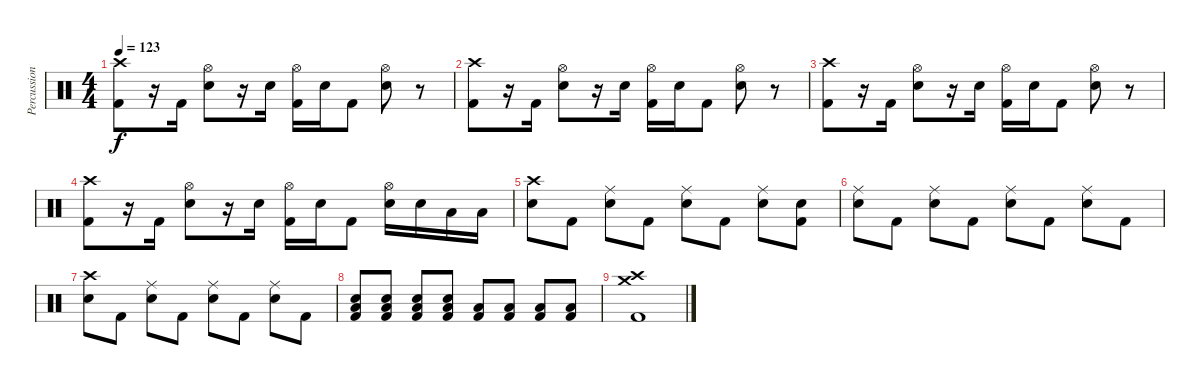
\track ("Percussioni" "Percussion") {instrument percussion}
\staff {score}
\articulation defaults
\ts (4 4)
\tempo 123
\clef neutral
\ks c
("Crash high (hit)" "Kick (hit) 2").8{dy f} r.16 "Kick (hit) 2".16 ("Hi-Hat (open)" "Electric Snare (hit)").8 r.16 "Electric Snare (hit)".16 ("Hi-Hat (open)" "Kick (hit) 2").16 "Electric Snare (hit)".16 "Kick (hit) 2".8 ("Hi-Hat (open)" "Electric Snare (hit)").8 r.8 |
("Crash high (hit)" "Kick (hit) 2").8 r.16 "Kick (hit) 2".16 ("Hi-Hat (open)" "Electric Snare (hit)").8 r.16 "Electric Snare (hit)".16 ("Hi-Hat (open)" "Kick (hit) 2").16 "Electric Snare (hit)".16 "Kick (hit) 2".8 ("Hi-Hat (open)" "Electric Snare (hit)").8 r.8 |
("Crash high (hit)" "Kick (hit) 2").8 r.16 "Kick (hit) 2".16 ("Hi-Hat (open)" "Electric Snare (hit)").8 r.16 "Electric Snare (hit)".16 ("Hi-Hat (open)" "Kick (hit) 2").16 "Electric Snare (hit)".16 "Kick (hit) 2".8 ("Hi-Hat (open)" "Electric Snare (hit)").8 r.8 |
("Crash high (hit)" "Kick (hit) 2").8 r.16 "Kick (hit) 2".16 ("Hi-Hat (open)" "Electric Snare (hit)").8 r.16 "Electric Snare (hit)".16 ("Hi-Hat (open)" "Kick (hit) 2").16 "Electric Snare (hit)".16 "Kick (hit) 2".8 ("Hi-Hat (open)" "Electric Snare (hit)").16 "Electric Snare (hit)".16 "Low Tom (hit)".16 "Low Tom (hit)".16 |
("Crash high (hit)" "Electric Snare (hit)").8 "Kick (hit) 2".8 ("Ride (middle)" "Electric Snare (hit)").8 "Kick (hit) 2".8 ("Ride (middle)" "Electric Snare (hit)").8 "Kick (hit) 2".8 ("Ride (middle)" "Electric Snare (hit)").8 ("Snare (hit)" "Kick (hit) 2").8 |
("Ride (middle)" "Electric Snare (hit)").8 "Kick (hit) 2".8 ("Ride (middle)" "Electric Snare (hit)").8 "Kick (hit) 2".8 ("Ride (middle)" "Electric Snare (hit)").8 "Kick (hit) 2".8 ("Ride (middle)" "Electric Snare (hit)").8 "Kick (hit) 2".8 |
("Crash high (hit)" "Electric Snare (hit)").8 "Kick (hit) 2".8 ("Ride (middle)" "Electric Snare (hit)").8 "Kick (hit) 2".8 ("Ride (middle)" "Electric Snare (hit)").8 "Kick (hit) 2".8 ("Ride (middle)" "Electric Snare (hit)").8 "Kick (hit) 2".8 |
("Kick (hit) 2" "Low Floor Tom (hit)" "Electric Snare (hit)").8 ("Kick (hit) 2" "Low Floor Tom (hit)" "Electric Snare (hit)").8 ("Kick (hit) 2" "Low Floor Tom (hit)" "Electric Snare (hit)").8 ("Kick (hit) 2" "Low Floor Tom (hit)" "Electric Snare (hit)").8 ("Kick (hit) 2" "Low Tom (hit)").8 ("Kick (hit) 2" "Low Tom (hit)").8 ("Kick (hit) 2" "Low Floor Tom (hit)").8 ("Kick (hit) 2" "Low Floor Tom (hit)").8 |
("Crash high (hit)" "Crash medium (hit)" "Kick (hit) 2").1
